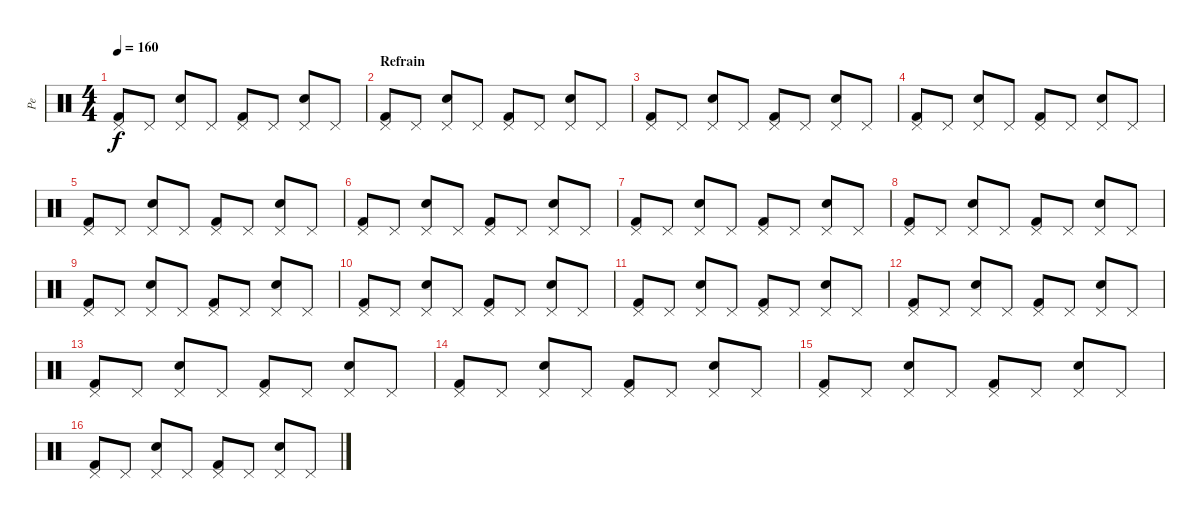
\track ("Pe" "Pe") {instrument percussion}
\staff {score}
\articulation defaults
\ts (4 4)
\tempo 160
\clef neutral
\ks c
("Pedal Hi-Hat (hit)" "Kick (hit) 2").8{dy f} "Pedal Hi-Hat (hit)".8 ("Pedal Hi-Hat (hit)" "Electric Snare (hit)").8 "Pedal Hi-Hat (hit)".8 ("Pedal Hi-Hat (hit)" "Kick (hit) 2").8 "Pedal Hi-Hat (hit)".8 ("Pedal Hi-Hat (hit)" "Electric Snare (hit)").8 "Pedal Hi-Hat (hit)".8 |
\section ("" "Refrain")
("Pedal Hi-Hat (hit)" "Kick (hit) 2").8 "Pedal Hi-Hat (hit)".8 ("Pedal Hi-Hat (hit)" "Electric Snare (hit)").8 "Pedal Hi-Hat (hit)".8 ("Pedal Hi-Hat (hit)" "Kick (hit) 2").8 "Pedal Hi-Hat (hit)".8 ("Pedal Hi-Hat (hit)" "Electric Snare (hit)").8 "Pedal Hi-Hat (hit)".8 |
("Pedal Hi-Hat (hit)" "Kick (hit) 2").8 "Pedal Hi-Hat (hit)".8 ("Pedal Hi-Hat (hit)" "Electric Snare (hit)").8 "Pedal Hi-Hat (hit)".8 ("Pedal Hi-Hat (hit)" "Kick (hit) 2").8 "Pedal Hi-Hat (hit)".8 ("Pedal Hi-Hat (hit)" "Electric Snare (hit)").8 "Pedal Hi-Hat (hit)".8 |
("Pedal Hi-Hat (hit)" "Kick (hit) 2").8 "Pedal Hi-Hat (hit)".8 ("Pedal Hi-Hat (hit)" "Electric Snare (hit)").8 "Pedal Hi-Hat (hit)".8 ("Pedal Hi-Hat (hit)" "Kick (hit) 2").8 "Pedal Hi-Hat (hit)".8 ("Pedal Hi-Hat (hit)" "Electric Snare (hit)").8 "Pedal Hi-Hat (hit)".8 |
("Pedal Hi-Hat (hit)" "Kick (hit) 2").8 "Pedal Hi-Hat (hit)".8 ("Pedal Hi-Hat (hit)" "Electric Snare (hit)").8 "Pedal Hi-Hat (hit)".8 ("Pedal Hi-Hat (hit)" "Kick (hit) 2").8 "Pedal Hi-Hat (hit)".8 ("Pedal Hi-Hat (hit)" "Electric Snare (hit)").8 "Pedal Hi-Hat (hit)".8 |
("Pedal Hi-Hat (hit)" "Kick (hit) 2").8 "Pedal Hi-Hat (hit)".8 ("Pedal Hi-Hat (hit)" "Electric Snare (hit)").8 "Pedal Hi-Hat (hit)".8 ("Pedal Hi-Hat (hit)" "Kick (hit) 2").8 "Pedal Hi-Hat (hit)".8 ("Pedal Hi-Hat (hit)" "Electric Snare (hit)").8 "Pedal Hi-Hat (hit)".8 |
("Pedal Hi-Hat (hit)" "Kick (hit) 2").8 "Pedal Hi-Hat (hit)".8 ("Pedal Hi-Hat (hit)" "Electric Snare (hit)").8 "Pedal Hi-Hat (hit)".8 ("Pedal Hi-Hat (hit)" "Kick (hit) 2").8 "Pedal Hi-Hat (hit)".8 ("Pedal Hi-Hat (hit)" "Electric Snare (hit)").8 "Pedal Hi-Hat (hit)".8 |
("Pedal Hi-Hat (hit)" "Kick (hit) 2").8 "Pedal Hi-Hat (hit)".8 ("Pedal Hi-Hat (hit)" "Electric Snare (hit)").8 "Pedal Hi-Hat (hit)".8 ("Pedal Hi-Hat (hit)" "Kick (hit) 2").8 "Pedal Hi-Hat (hit)".8 ("Pedal Hi-Hat (hit)" "Electric Snare (hit)").8 "Pedal Hi-Hat (hit)".8 |
("Pedal Hi-Hat (hit)" "Kick (hit) 2").8 "Pedal Hi-Hat (hit)".8 ("Pedal Hi-Hat (hit)" "Electric Snare (hit)").8 "Pedal Hi-Hat (hit)".8 ("Pedal Hi-Hat (hit)" "Kick (hit) 2").8 "Pedal Hi-Hat (hit)".8 ("Pedal Hi-Hat (hit)" "Electric Snare (hit)").8 "Pedal Hi-Hat (hit)".8 |
("Pedal Hi-Hat (hit)" "Kick (hit) 2").8 "Pedal Hi-Hat (hit)".8 ("Pedal Hi-Hat (hit)" "Electric Snare (hit)").8 "Pedal Hi-Hat (hit)".8 ("Pedal Hi-Hat (hit)" "Kick (hit) 2").8 "Pedal Hi-Hat (hit)".8 ("Pedal Hi-Hat (hit)" "Electric Snare (hit)").8 "Pedal Hi-Hat (hit)".8 |
("Pedal Hi-Hat (hit)" "Kick (hit) 2").8 "Pedal Hi-Hat (hit)".8 ("Pedal Hi-Hat (hit)" "Electric Snare (hit)").8 "Pedal Hi-Hat (hit)".8 ("Pedal Hi-Hat (hit)" "Kick (hit) 2").8 "Pedal Hi-Hat (hit)".8 ("Pedal Hi-Hat (hit)" "Electric Snare (hit)").8 "Pedal Hi-Hat (hit)".8 |
("Pedal Hi-Hat (hit)" "Kick (hit) 2").8 "Pedal Hi-Hat (hit)".8 ("Pedal Hi-Hat (hit)" "Electric Snare (hit)").8 "Pedal Hi-Hat (hit)".8 ("Pedal Hi-Hat (hit)" "Kick (hit) 2").8 "Pedal Hi-Hat (hit)".8 ("Pedal Hi-Hat (hit)" "Electric Snare (hit)").8 "Pedal Hi-Hat (hit)".8 |
("Pedal Hi-Hat (hit)" "Kick (hit) 2").8 "Pedal Hi-Hat (hit)".8 ("Pedal Hi-Hat (hit)" "Electric Snare (hit)").8 "Pedal Hi-Hat (hit)".8 ("Pedal Hi-Hat (hit)" "Kick (hit) 2").8 "Pedal Hi-Hat (hit)".8 ("Pedal Hi-Hat (hit)" "Electric Snare (hit)").8 "Pedal Hi-Hat (hit)".8 |
("Pedal Hi-Hat (hit)" "Kick (hit) 2").8 "Pedal Hi-Hat (hit)".8 ("Pedal Hi-Hat (hit)" "Electric Snare (hit)").8 "Pedal Hi-Hat (hit)".8 ("Pedal Hi-Hat (hit)" "Kick (hit) 2").8 "Pedal Hi-Hat (hit)".8 ("Pedal Hi-Hat (hit)" "Electric Snare (hit)").8 "Pedal Hi-Hat (hit)".8 |
("Pedal Hi-Hat (hit)" "Kick (hit) 2").8 "Pedal Hi-Hat (hit)".8 ("Pedal Hi-Hat (hit)" "Electric Snare (hit)").8 "Pedal Hi-Hat (hit)".8 ("Pedal Hi-Hat (hit)" "Kick (hit) 2").8 "Pedal Hi-Hat (hit)".8 ("Pedal Hi-Hat (hit)" "Electric Snare (hit)").8 "Pedal Hi-Hat (hit)".8 |
("Pedal Hi-Hat (hit)" "Kick (hit) 2").8 "Pedal Hi-Hat (hit)".8 ("Pedal Hi-Hat (hit)" "Electric Snare (hit)").8 "Pedal Hi-Hat (hit)".8 ("Pedal Hi-Hat (hit)" "Kick (hit) 2").8 "Pedal Hi-Hat (hit)".8 ("Pedal Hi-Hat (hit)" "Electric Snare (hit)").8 "Pedal Hi-Hat (hit)".8
